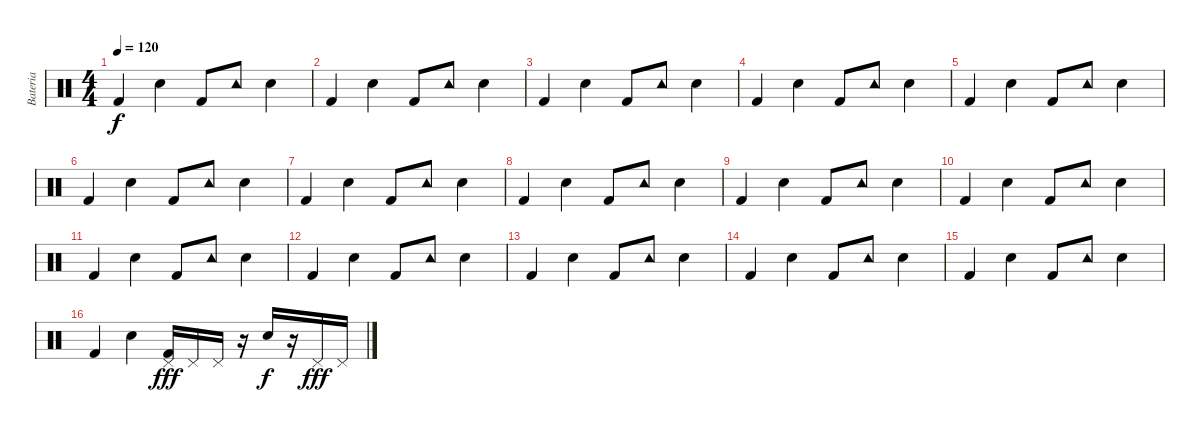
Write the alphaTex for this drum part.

\track ("Bateria" "Bateria") {instrument percussion}
\staff {score}
\articulation defaults
\ts (4 4)
\tempo 120
\clef neutral
\ks c "Kick (hit) 2".4{dy f} "Electric Snare (hit)".4 "Kick (hit) 2".8 "Tambourine (hit)".8 "Electric Snare (hit)".4
|
"Kick (hit) 2".4 "Electric Snare (hit)".4 "Kick (hit) 2".8 "Tambourine (hit)".8 "Electric Snare (hit)".4 |
"Kick (hit) 2".4 "Electric Snare (hit)".4 "Kick (hit) 2".8 "Tambourine (hit)".8 "Electric Snare (hit)".4 |
"Kick (hit) 2".4 "Electric Snare (hit)".4 "Kick (hit) 2".8 "Tambourine (hit)".8 "Electric Snare (hit)".4 |
"Kick (hit) 2".4 "Electric Snare (hit)".4 "Kick (hit) 2".8 "Tambourine (hit)".8 "Electric Snare (hit)".4 |
"Kick (hit) 2".4 "Electric Snare (hit)".4 "Kick (hit) 2".8 "Tambourine (hit)".8 "Electric Snare (hit)".4 |
"Kick (hit) 2".4 "Electric Snare (hit)".4 "Kick (hit) 2".8 "Tambourine (hit)".8 "Electric Snare (hit)".4 |
"Kick (hit) 2".4 "Electric Snare (hit)".4 "Kick (hit) 2".8 "Tambourine (hit)".8 "Electric Snare (hit)".4 |
"Kick (hit) 2".4 "Electric Snare (hit)".4 "Kick (hit) 2".8 "Tambourine (hit)".8 "Electric Snare (hit)".4 |
"Kick (hit) 2".4 "Electric Snare (hit)".4 "Kick (hit) 2".8 "Tambourine (hit)".8 "Electric Snare (hit)".4 |
"Kick (hit) 2".4 "Electric Snare (hit)".4 "Kick (hit) 2".8 "Tambourine (hit)".8 "Electric Snare (hit)".4 |
"Kick (hit) 2".4 "Electric Snare (hit)".4 "Kick (hit) 2".8 "Tambourine (hit)".8 "Electric Snare (hit)".4 |
"Kick (hit) 2".4 "Electric Snare (hit)".4 "Kick (hit) 2".8 "Tambourine (hit)".8 "Electric Snare (hit)".4 |
"Kick (hit) 2".4 "Electric Snare (hit)".4 "Kick (hit) 2".8 "Tambourine (hit)".8 "Electric Snare (hit)".4 |
"Kick (hit) 2".4 "Electric Snare (hit)".4 "Kick (hit) 2".8 "Tambourine (hit)".8 "Electric Snare (hit)".4 |
"Kick (hit) 2".4 "Electric Snare (hit)".4 ("Pedal Hi-Hat (hit)" "Kick (hit) 2").16{dy fff} "Pedal Hi-Hat (hit)".16 "Pedal Hi-Hat (hit)".16 r.16 "Electric Snare (hit)".16{dy f} r.16 "Pedal Hi-Hat (hit)".16{dy fff} "Pedal Hi-Hat (hit)".16
